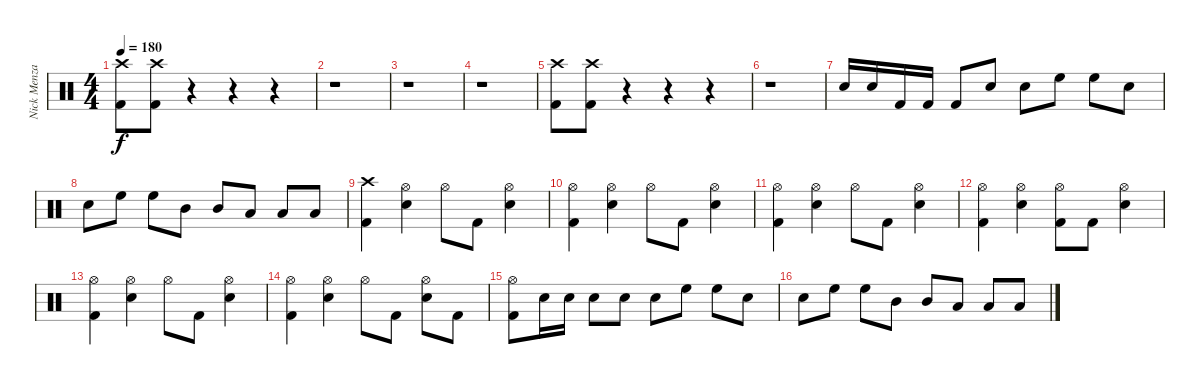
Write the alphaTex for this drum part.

\track ("Nick Menza" "Nick Menza") {instrument percussion}
\staff {score}
\articulation defaults
\ts (4 4)
\tempo 180
\clef neutral
\ks c
("Crash high (hit)" "Kick (hit) 2").8{dy f} ("Crash high (hit)" "Kick (hit) 2").8 r.4 r.4 r.4 |
r.1 |
r.1 |
r.1 |
("Crash high (hit)" "Kick (hit) 2").8 ("Crash high (hit)" "Kick (hit) 2").8 r.4 r.4 r.4 |
r.1 |
"Snare (hit) 2".16 "Snare (hit) 2".16 "Kick (hit) 2".16 "Kick (hit) 2".16 "Kick (hit) 2".8 "Snare (hit) 2".8 "Snare (hit) 2".8 "High Floor Tom (hit)".8 "High Floor Tom (hit)".8 "Snare (hit) 2".8 |
"Snare (hit) 2".8 "High Floor Tom (hit)".8 "High Floor Tom (hit)".8 "Mid Tom (hit)".8 "Mid Tom (hit)".8 "Low Tom (hit)".8 "Low Tom (hit)".8 "Low Tom (hit)".8 |
("Crash high (hit)" "Kick (hit) 2").4 ("Hi-Hat (open)" "Snare (hit) 2").4 "Hi-Hat (open)".8 "Kick (hit) 2".8 ("Hi-Hat (open)" "Snare (hit) 2").4 |
("Hi-Hat (open)" "Kick (hit) 2").4 ("Hi-Hat (open)" "Snare (hit) 2").4 "Hi-Hat (open)".8 "Kick (hit) 2".8 ("Hi-Hat (open)" "Snare (hit) 2").4 |
("Hi-Hat (open)" "Kick (hit) 2").4 ("Hi-Hat (open)" "Snare (hit) 2").4 "Hi-Hat (open)".8 "Kick (hit) 2".8 ("Hi-Hat (open)" "Snare (hit) 2").4 |
("Hi-Hat (open)" "Kick (hit) 2").4 ("Hi-Hat (open)" "Snare (hit) 2").4 ("Hi-Hat (open)" "Kick (hit) 2").8 "Kick (hit) 2".8 ("Hi-Hat (open)" "Snare (hit) 2").4 |
("Hi-Hat (open)" "Kick (hit) 2").4 ("Hi-Hat (open)" "Snare (hit) 2").4 "Hi-Hat (open)".8 "Kick (hit) 2".8 ("Hi-Hat (open)" "Snare (hit) 2").4 |
("Hi-Hat (open)" "Kick (hit) 2").4 ("Hi-Hat (open)" "Snare (hit) 2").4 "Hi-Hat (open)".8 "Kick (hit) 2".8 ("Hi-Hat (open)" "Snare (hit) 2").8 "Kick (hit) 2".8 |
("Hi-Hat (open)" "Kick (hit) 2").8 "Snare (hit) 2".16 "Snare (hit) 2".16 "Snare (hit) 2".8 "Snare (hit) 2".8 "Snare (hit) 2".8 "High Floor Tom (hit)".8 "High Floor Tom (hit)".8 "Snare (hit) 2".8 |
"Snare (hit) 2".8 "High Floor Tom (hit)".8 "High Floor Tom (hit)".8 "Mid Tom (hit)".8 "Mid Tom (hit)".8 "Low Tom (hit)".8 "Low Tom (hit)".8 "Low Tom (hit)".8
